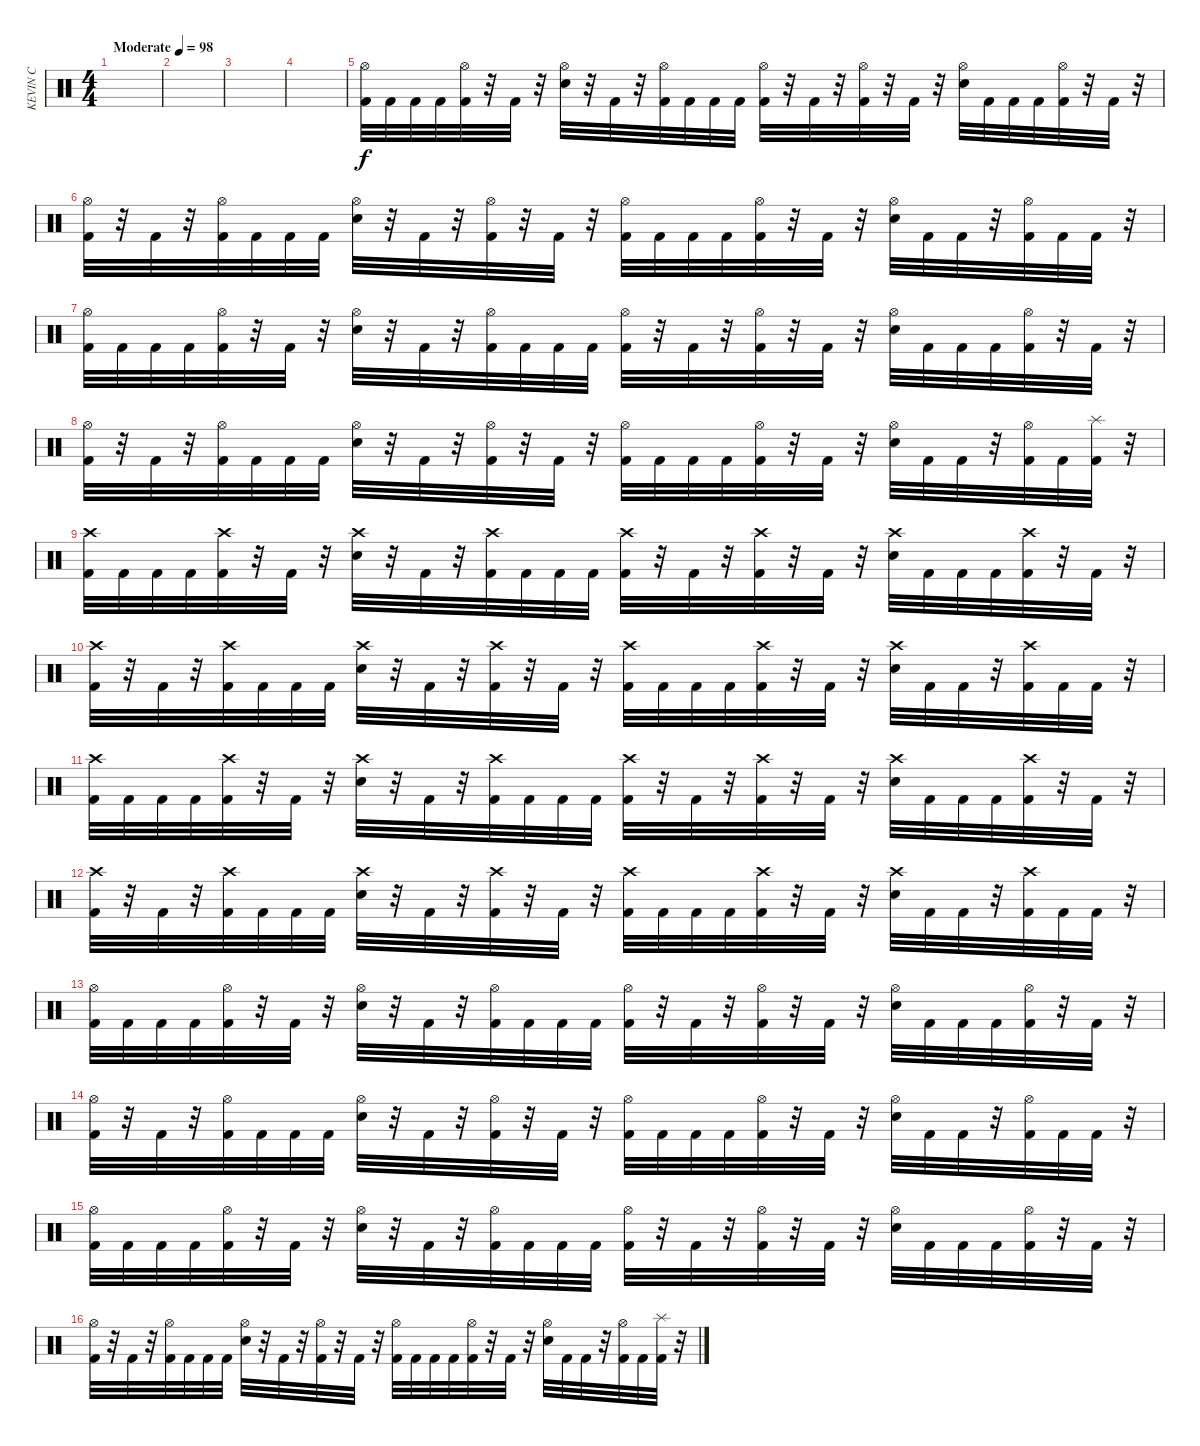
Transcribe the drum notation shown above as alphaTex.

\track ("KEVIN C" "KEVIN C") {instrument percussion}
\staff {score}
\articulation defaults
\ts (4 4)
\tempo (98 "Moderate")
\clef neutral
\ks c
|
|
|
|
("Hi-Hat (open)" "Kick (hit) 2").32 "Kick (hit) 2".32 "Kick (hit) 2".32 "Kick (hit) 2".32 ("Hi-Hat (open)" "Kick (hit) 2").32 r.32 "Kick (hit) 2".32 r.32 ("Hi-Hat (open)" "Snare (hit) 2").32 r.32 "Kick (hit) 2".32 r.32 ("Hi-Hat (open)" "Kick (hit) 2").32 "Kick (hit) 2".32 "Kick (hit) 2".32 "Kick (hit) 2".32 ("Hi-Hat (open)" "Kick (hit) 2").32 r.32 "Kick (hit) 2".32 r.32 ("Hi-Hat (open)" "Kick (hit) 2").32 r.32 "Kick (hit) 2".32 r.32 ("Hi-Hat (open)" "Snare (hit) 2").32 "Kick (hit) 2".32 "Kick (hit) 2".32 "Kick (hit) 2".32 ("Hi-Hat (open)" "Kick (hit) 2").32 r.32 "Kick (hit) 2".32 r.32 |
("Hi-Hat (open)" "Kick (hit) 2").32 r.32 "Kick (hit) 2".32 r.32 ("Hi-Hat (open)" "Kick (hit) 2").32 "Kick (hit) 2".32 "Kick (hit) 2".32 "Kick (hit) 2".32 ("Hi-Hat (open)" "Snare (hit) 2").32 r.32 "Kick (hit) 2".32 r.32 ("Hi-Hat (open)" "Kick (hit) 2").32 r.32 "Kick (hit) 2".32 r.32 ("Hi-Hat (open)" "Kick (hit) 2").32 "Kick (hit) 2".32 "Kick (hit) 2".32 "Kick (hit) 2".32 ("Hi-Hat (open)" "Kick (hit) 2").32 r.32 "Kick (hit) 2".32 r.32 ("Hi-Hat (open)" "Snare (hit) 2").32 "Kick (hit) 2".32 "Kick (hit) 2".32 r.32 ("Hi-Hat (open)" "Kick (hit) 2").32 "Kick (hit) 2".32 "Kick (hit) 2".32 r.32 |
("Hi-Hat (open)" "Kick (hit) 2").32 "Kick (hit) 2".32 "Kick (hit) 2".32 "Kick (hit) 2".32 ("Hi-Hat (open)" "Kick (hit) 2").32 r.32 "Kick (hit) 2".32 r.32 ("Hi-Hat (open)" "Snare (hit) 2").32 r.32 "Kick (hit) 2".32 r.32 ("Hi-Hat (open)" "Kick (hit) 2").32 "Kick (hit) 2".32 "Kick (hit) 2".32 "Kick (hit) 2".32 ("Hi-Hat (open)" "Kick (hit) 2").32 r.32 "Kick (hit) 2".32 r.32 ("Hi-Hat (open)" "Kick (hit) 2").32 r.32 "Kick (hit) 2".32 r.32 ("Hi-Hat (open)" "Snare (hit) 2").32 "Kick (hit) 2".32 "Kick (hit) 2".32 "Kick (hit) 2".32 ("Hi-Hat (open)" "Kick (hit) 2").32 r.32 "Kick (hit) 2".32 r.32 |
("Hi-Hat (open)" "Kick (hit) 2").32 r.32 "Kick (hit) 2".32 r.32 ("Hi-Hat (open)" "Kick (hit) 2").32 "Kick (hit) 2".32 "Kick (hit) 2".32 "Kick (hit) 2".32 ("Hi-Hat (open)" "Snare (hit) 2").32 r.32 "Kick (hit) 2".32 r.32 ("Hi-Hat (open)" "Kick (hit) 2").32 r.32 "Kick (hit) 2".32 r.32 ("Hi-Hat (open)" "Kick (hit) 2").32 "Kick (hit) 2".32 "Kick (hit) 2".32 "Kick (hit) 2".32 ("Hi-Hat (open)" "Kick (hit) 2").32 r.32 "Kick (hit) 2".32 r.32 ("Hi-Hat (open)" "Snare (hit) 2").32 "Kick (hit) 2".32 "Kick (hit) 2".32 r.32 ("Hi-Hat (open)" "Kick (hit) 2").32 "Kick (hit) 2".32 ("Splash (hit)" "Kick (hit) 2").32 r.32 |
("Crash high (hit)" "Kick (hit) 2").32 "Kick (hit) 2".32 "Kick (hit) 2".32 "Kick (hit) 2".32 ("Crash high (hit)" "Kick (hit) 2").32 r.32 "Kick (hit) 2".32 r.32 ("Crash high (hit)" "Snare (hit) 2").32 r.32 "Kick (hit) 2".32 r.32 ("Crash high (hit)" "Kick (hit) 2").32 "Kick (hit) 2".32 "Kick (hit) 2".32 "Kick (hit) 2".32 ("Crash high (hit)" "Kick (hit) 2").32 r.32 "Kick (hit) 2".32 r.32 ("Crash high (hit)" "Kick (hit) 2").32 r.32 "Kick (hit) 2".32 r.32 ("Crash high (hit)" "Snare (hit) 2").32 "Kick (hit) 2".32 "Kick (hit) 2".32 "Kick (hit) 2".32 ("Crash high (hit)" "Kick (hit) 2").32 r.32 "Kick (hit) 2".32 r.32 |
("Crash high (hit)" "Kick (hit) 2").32 r.32 "Kick (hit) 2".32 r.32 ("Crash high (hit)" "Kick (hit) 2").32 "Kick (hit) 2".32 "Kick (hit) 2".32 "Kick (hit) 2".32 ("Crash high (hit)" "Snare (hit) 2").32 r.32 "Kick (hit) 2".32 r.32 ("Crash high (hit)" "Kick (hit) 2").32 r.32 "Kick (hit) 2".32 r.32 ("Crash high (hit)" "Kick (hit) 2").32 "Kick (hit) 2".32 "Kick (hit) 2".32 "Kick (hit) 2".32 ("Crash high (hit)" "Kick (hit) 2").32 r.32 "Kick (hit) 2".32 r.32 ("Crash high (hit)" "Snare (hit) 2").32 "Kick (hit) 2".32 "Kick (hit) 2".32 r.32 ("Crash high (hit)" "Kick (hit) 2").32 "Kick (hit) 2".32 "Kick (hit) 2".32 r.32 |
("Crash high (hit)" "Kick (hit) 2").32 "Kick (hit) 2".32 "Kick (hit) 2".32 "Kick (hit) 2".32 ("Crash high (hit)" "Kick (hit) 2").32 r.32 "Kick (hit) 2".32 r.32 ("Crash high (hit)" "Snare (hit) 2").32 r.32 "Kick (hit) 2".32 r.32 ("Crash high (hit)" "Kick (hit) 2").32 "Kick (hit) 2".32 "Kick (hit) 2".32 "Kick (hit) 2".32 ("Crash high (hit)" "Kick (hit) 2").32 r.32 "Kick (hit) 2".32 r.32 ("Crash high (hit)" "Kick (hit) 2").32 r.32 "Kick (hit) 2".32 r.32 ("Crash high (hit)" "Snare (hit) 2").32 "Kick (hit) 2".32 "Kick (hit) 2".32 "Kick (hit) 2".32 ("Crash high (hit)" "Kick (hit) 2").32 r.32 "Kick (hit) 2".32 r.32 |
("Crash high (hit)" "Kick (hit) 2").32 r.32 "Kick (hit) 2".32 r.32 ("Crash high (hit)" "Kick (hit) 2").32 "Kick (hit) 2".32 "Kick (hit) 2".32 "Kick (hit) 2".32 ("Crash high (hit)" "Snare (hit) 2").32 r.32 "Kick (hit) 2".32 r.32 ("Crash high (hit)" "Kick (hit) 2").32 r.32 "Kick (hit) 2".32 r.32 ("Crash high (hit)" "Kick (hit) 2").32 "Kick (hit) 2".32 "Kick (hit) 2".32 "Kick (hit) 2".32 ("Crash high (hit)" "Kick (hit) 2").32 r.32 "Kick (hit) 2".32 r.32 ("Crash high (hit)" "Snare (hit) 2").32 "Kick (hit) 2".32 "Kick (hit) 2".32 r.32 ("Crash high (hit)" "Kick (hit) 2").32 "Kick (hit) 2".32 "Kick (hit) 2".32 r.32 |
("Hi-Hat (open)" "Kick (hit) 2").32 "Kick (hit) 2".32 "Kick (hit) 2".32 "Kick (hit) 2".32 ("Hi-Hat (open)" "Kick (hit) 2").32 r.32 "Kick (hit) 2".32 r.32 ("Hi-Hat (open)" "Snare (hit) 2").32 r.32 "Kick (hit) 2".32 r.32 ("Hi-Hat (open)" "Kick (hit) 2").32 "Kick (hit) 2".32 "Kick (hit) 2".32 "Kick (hit) 2".32 ("Hi-Hat (open)" "Kick (hit) 2").32 r.32 "Kick (hit) 2".32 r.32 ("Hi-Hat (open)" "Kick (hit) 2").32 r.32 "Kick (hit) 2".32 r.32 ("Hi-Hat (open)" "Snare (hit) 2").32 "Kick (hit) 2".32 "Kick (hit) 2".32 "Kick (hit) 2".32 ("Hi-Hat (open)" "Kick (hit) 2").32 r.32 "Kick (hit) 2".32 r.32 |
("Hi-Hat (open)" "Kick (hit) 2").32 r.32 "Kick (hit) 2".32 r.32 ("Hi-Hat (open)" "Kick (hit) 2").32 "Kick (hit) 2".32 "Kick (hit) 2".32 "Kick (hit) 2".32 ("Hi-Hat (open)" "Snare (hit) 2").32 r.32 "Kick (hit) 2".32 r.32 ("Hi-Hat (open)" "Kick (hit) 2").32 r.32 "Kick (hit) 2".32 r.32 ("Hi-Hat (open)" "Kick (hit) 2").32 "Kick (hit) 2".32 "Kick (hit) 2".32 "Kick (hit) 2".32 ("Hi-Hat (open)" "Kick (hit) 2").32 r.32 "Kick (hit) 2".32 r.32 ("Hi-Hat (open)" "Snare (hit) 2").32 "Kick (hit) 2".32 "Kick (hit) 2".32 r.32 ("Hi-Hat (open)" "Kick (hit) 2").32 "Kick (hit) 2".32 "Kick (hit) 2".32 r.32 |
("Hi-Hat (open)" "Kick (hit) 2").32 "Kick (hit) 2".32 "Kick (hit) 2".32 "Kick (hit) 2".32 ("Hi-Hat (open)" "Kick (hit) 2").32 r.32 "Kick (hit) 2".32 r.32 ("Hi-Hat (open)" "Snare (hit) 2").32 r.32 "Kick (hit) 2".32 r.32 ("Hi-Hat (open)" "Kick (hit) 2").32 "Kick (hit) 2".32 "Kick (hit) 2".32 "Kick (hit) 2".32 ("Hi-Hat (open)" "Kick (hit) 2").32 r.32 "Kick (hit) 2".32 r.32 ("Hi-Hat (open)" "Kick (hit) 2").32 r.32 "Kick (hit) 2".32 r.32 ("Hi-Hat (open)" "Snare (hit) 2").32 "Kick (hit) 2".32 "Kick (hit) 2".32 "Kick (hit) 2".32 ("Hi-Hat (open)" "Kick (hit) 2").32 r.32 "Kick (hit) 2".32 r.32 |
("Hi-Hat (open)" "Kick (hit) 2").32 r.32 "Kick (hit) 2".32 r.32 ("Hi-Hat (open)" "Kick (hit) 2").32 "Kick (hit) 2".32 "Kick (hit) 2".32 "Kick (hit) 2".32 ("Hi-Hat (open)" "Snare (hit) 2").32 r.32 "Kick (hit) 2".32 r.32 ("Hi-Hat (open)" "Kick (hit) 2").32 r.32 "Kick (hit) 2".32 r.32 ("Hi-Hat (open)" "Kick (hit) 2").32 "Kick (hit) 2".32 "Kick (hit) 2".32 "Kick (hit) 2".32 ("Hi-Hat (open)" "Kick (hit) 2").32 r.32 "Kick (hit) 2".32 r.32 ("Hi-Hat (open)" "Snare (hit) 2").32 "Kick (hit) 2".32 "Kick (hit) 2".32 r.32 ("Hi-Hat (open)" "Kick (hit) 2").32 "Kick (hit) 2".32 ("Splash (hit)" "Kick (hit) 2").32 r.32
